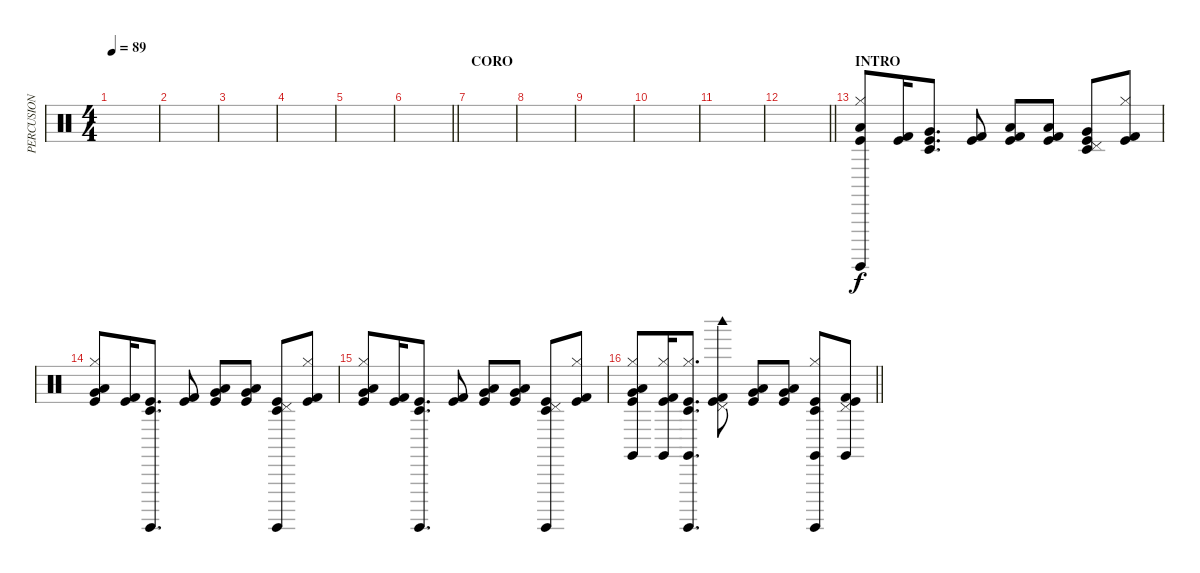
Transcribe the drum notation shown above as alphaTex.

\track ("PERCUSION" "PERCUSION") {instrument percussion}
\staff {score}
\articulation defaults
\ts (4 4)
\tempo 89
\clef neutral
\ks c
|
|
|
|
|
\barLineRight lightlight
|
\section ("" "CORO")
|
|
|
|
|
\barLineRight lightlight
|
\section ("" "INTRO")
("Kick (hit)" "Hi-Hat (closed)" "Surdo (hit)" "Low Floor Tom (hit)").8 ("Kick (hit)" "Kick (hit) 2").16 ("Kick (hit)" "Very Low Tom (hit)" "Timbale low (hit)").8{d} ("Kick (hit)" "Kick (hit) 2").8 ("Kick (hit)" "Kick (hit) 2" "Low Floor Tom (hit)").8 ("Kick (hit)" "Kick (hit) 2" "Low Floor Tom (hit)").8 ("Kick (hit)" "Pedal Hi-Hat (hit)" "Very Low Tom (hit)" "Timbale low (hit)").8 ("Kick (hit)" "Hi-Hat (closed)" "Kick (hit) 2").8 |
("Kick (hit)" "Hi-Hat (closed)" "Very Low Tom (hit)" "Low Floor Tom (hit)").8 ("Kick (hit)" "Kick (hit) 2").16 ("Kick (hit)" "Surdo (hit)" "Timbale low (hit)").8{d} ("Kick (hit)" "Kick (hit) 2").8 ("Kick (hit)" "Very Low Tom (hit)" "Low Floor Tom (hit)").8 ("Kick (hit)" "Very Low Tom (hit)" "Low Floor Tom (hit)").8 ("Kick (hit)" "Pedal Hi-Hat (hit)" "Surdo (hit)" "Timbale low (hit)").8 ("Kick (hit)" "Hi-Hat (closed)" "Kick (hit) 2").8 |
("Kick (hit)" "Hi-Hat (closed)" "Very Low Tom (hit)" "Low Floor Tom (hit)").8 ("Kick (hit)" "Kick (hit) 2").16 ("Kick (hit)" "Surdo (hit)" "Timbale low (hit)").8{d} ("Kick (hit)" "Kick (hit) 2").8 ("Kick (hit)" "Very Low Tom (hit)" "Low Floor Tom (hit)").8 ("Kick (hit)" "Very Low Tom (hit)" "Low Floor Tom (hit)").8 ("Kick (hit)" "Pedal Hi-Hat (hit)" "Surdo (hit)" "Timbale low (hit)").8 ("Kick (hit)" "Hi-Hat (closed)" "Kick (hit) 2").8 |
\barLineRight lightlight
("Kick (hit)" "Claves (hit)" "Hi-Hat (closed)" "Very Low Tom (hit)" "Low Floor Tom (hit)").8 ("Kick (hit)" "Claves (hit)" "Hi-Hat (closed)" "Kick (hit) 2").16 ("Kick (hit)" "Claves (hit)" "Hi-Hat (closed)" "Surdo (hit)" "Timbale low (hit)").8{d} ("Kick (hit)" "Woodblock high (hit)" "Pedal Hi-Hat (hit)" "Kick (hit) 2").8 ("Kick (hit)" "Very Low Tom (hit)" "Low Floor Tom (hit)").8 ("Kick (hit)" "Very Low Tom (hit)" "Low Floor Tom (hit)").8 ("Kick (hit)" "Claves (hit)" "Hi-Hat (closed)" "Surdo (hit)" "Timbale low (hit)").8 ("Kick (hit)" "Claves (hit)" "Pedal Hi-Hat (hit)" "Kick (hit) 2").8
